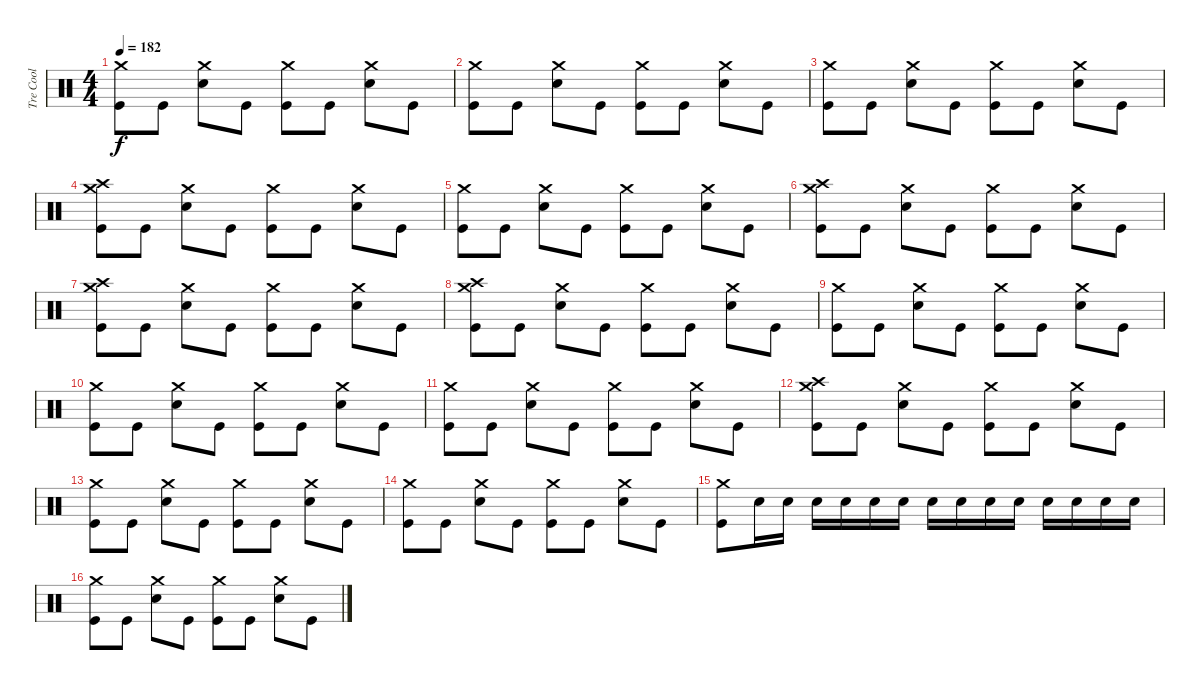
\track ("Tre Cool" "Tre Cool") {instrument percussion}
\staff {score}
\articulation defaults
\ts (4 4)
\tempo 182
\clef neutral
\ks c
("Crash medium (hit)" "Kick (hit)").8{dy f} "Kick (hit)".8 ("Crash medium (hit)" "Snare (hit) 2").8 "Kick (hit)".8 ("Crash medium (hit)" "Kick (hit)").8 "Kick (hit)".8 ("Crash medium (hit)" "Snare (hit) 2").8 "Kick (hit)".8 |
("Crash medium (hit)" "Kick (hit)").8 "Kick (hit)".8 ("Crash medium (hit)" "Snare (hit) 2").8 "Kick (hit)".8 ("Crash medium (hit)" "Kick (hit)").8 "Kick (hit)".8 ("Crash medium (hit)" "Snare (hit) 2").8 "Kick (hit)".8 |
("Crash medium (hit)" "Kick (hit)").8 "Kick (hit)".8 ("Crash medium (hit)" "Snare (hit) 2").8 "Kick (hit)".8 ("Crash medium (hit)" "Kick (hit)").8 "Kick (hit)".8 ("Crash medium (hit)" "Snare (hit) 2").8 "Kick (hit)".8 |
("Crash medium (hit)" "Crash high (hit)" "Kick (hit)").8 "Kick (hit)".8 ("Crash medium (hit)" "Snare (hit) 2").8 "Kick (hit)".8 ("Crash medium (hit)" "Kick (hit)").8 "Kick (hit)".8 ("Crash medium (hit)" "Snare (hit) 2").8 "Kick (hit)".8 |
("Crash medium (hit)" "Kick (hit)").8 "Kick (hit)".8 ("Crash medium (hit)" "Snare (hit) 2").8 "Kick (hit)".8 ("Crash medium (hit)" "Kick (hit)").8 "Kick (hit)".8 ("Crash medium (hit)" "Snare (hit) 2").8 "Kick (hit)".8 |
("Crash medium (hit)" "Crash high (hit)" "Kick (hit)").8 "Kick (hit)".8 ("Crash medium (hit)" "Snare (hit) 2").8 "Kick (hit)".8 ("Crash medium (hit)" "Kick (hit)").8 "Kick (hit)".8 ("Crash medium (hit)" "Snare (hit) 2").8 "Kick (hit)".8 |
("Crash medium (hit)" "Crash high (hit)" "Kick (hit)").8 "Kick (hit)".8 ("Crash medium (hit)" "Snare (hit) 2").8 "Kick (hit)".8 ("Crash medium (hit)" "Kick (hit)").8 "Kick (hit)".8 ("Crash medium (hit)" "Snare (hit) 2").8 "Kick (hit)".8 |
("Crash medium (hit)" "Crash high (hit)" "Kick (hit)").8 "Kick (hit)".8 ("Crash medium (hit)" "Snare (hit) 2").8 "Kick (hit)".8 ("Crash medium (hit)" "Kick (hit)").8 "Kick (hit)".8 ("Crash medium (hit)" "Snare (hit) 2").8 "Kick (hit)".8 |
("Crash medium (hit)" "Kick (hit)").8 "Kick (hit)".8 ("Crash medium (hit)" "Snare (hit) 2").8 "Kick (hit)".8 ("Crash medium (hit)" "Kick (hit)").8 "Kick (hit)".8 ("Crash medium (hit)" "Snare (hit) 2").8 "Kick (hit)".8 |
("Crash medium (hit)" "Kick (hit)").8 "Kick (hit)".8 ("Crash medium (hit)" "Snare (hit) 2").8 "Kick (hit)".8 ("Crash medium (hit)" "Kick (hit)").8 "Kick (hit)".8 ("Crash medium (hit)" "Snare (hit) 2").8 "Kick (hit)".8 |
("Crash medium (hit)" "Kick (hit)").8 "Kick (hit)".8 ("Crash medium (hit)" "Snare (hit) 2").8 "Kick (hit)".8 ("Crash medium (hit)" "Kick (hit)").8 "Kick (hit)".8 ("Crash medium (hit)" "Snare (hit) 2").8 "Kick (hit)".8 |
("Crash medium (hit)" "Crash high (hit)" "Kick (hit)").8 "Kick (hit)".8 ("Crash medium (hit)" "Snare (hit) 2").8 "Kick (hit)".8 ("Crash medium (hit)" "Kick (hit)").8 "Kick (hit)".8 ("Crash medium (hit)" "Snare (hit) 2").8 "Kick (hit)".8 |
("Crash medium (hit)" "Kick (hit)").8 "Kick (hit)".8 ("Crash medium (hit)" "Snare (hit) 2").8 "Kick (hit)".8 ("Crash medium (hit)" "Kick (hit)").8 "Kick (hit)".8 ("Crash medium (hit)" "Snare (hit) 2").8 "Kick (hit)".8 |
("Crash medium (hit)" "Kick (hit)").8 "Kick (hit)".8 ("Crash medium (hit)" "Snare (hit) 2").8 "Kick (hit)".8 ("Crash medium (hit)" "Kick (hit)").8 "Kick (hit)".8 ("Crash medium (hit)" "Snare (hit) 2").8 "Kick (hit)".8 |
("Crash medium (hit)" "Kick (hit)").8 "Snare (hit) 2".16 "Snare (hit) 2".16 "Snare (hit) 2".16 "Snare (hit) 2".16 "Snare (hit) 2".16 "Snare (hit) 2".16 "Snare (hit) 2".16 "Snare (hit) 2".16 "Snare (hit) 2".16 "Snare (hit) 2".16 "Snare (hit) 2".16 "Snare (hit) 2".16 "Snare (hit) 2".16 "Snare (hit) 2".16 |
("Crash medium (hit)" "Kick (hit)").8 "Kick (hit)".8 ("Crash medium (hit)" "Snare (hit) 2").8 "Kick (hit)".8 ("Crash medium (hit)" "Kick (hit)").8 "Kick (hit)".8 ("Crash medium (hit)" "Snare (hit) 2").8 "Kick (hit)".8
